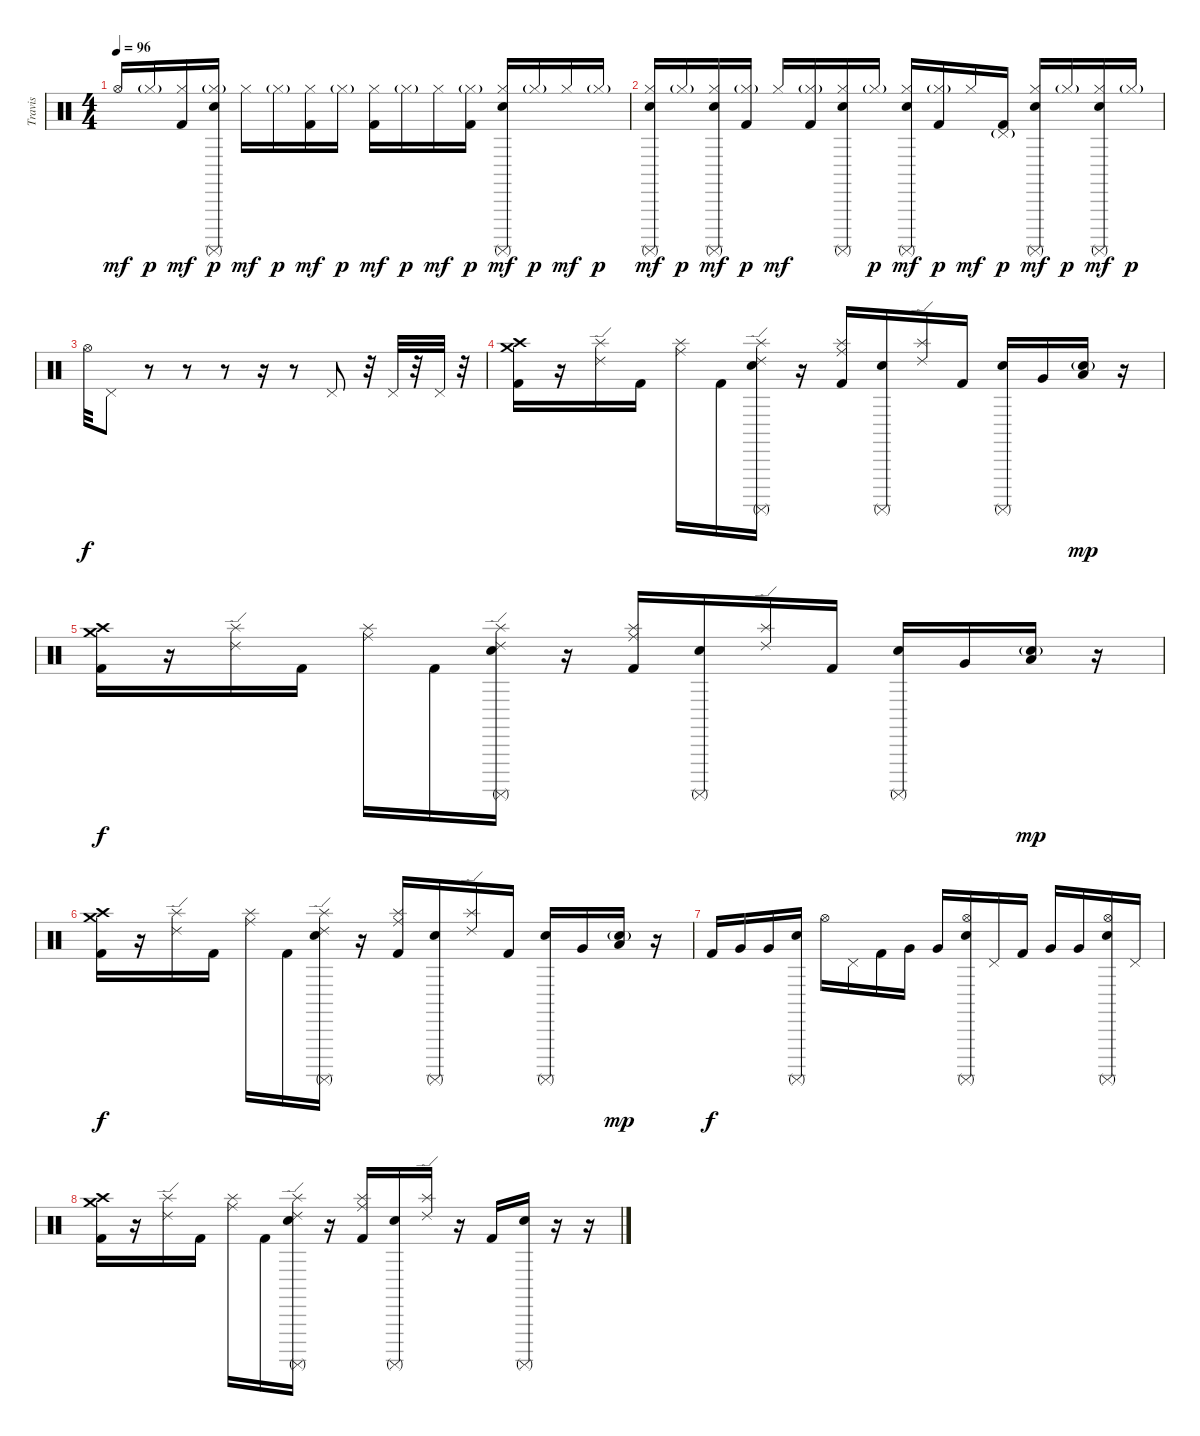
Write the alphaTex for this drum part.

\track ("Travis" "Travis") {instrument percussion bank 127}
\staff {score}
\articulation defaults
\ts (4 4)
\tempo 96
\clef neutral
\ks c "Hi-Hat (open)".16{dy mf} "Hi-Hat (closed)"{g}.16{dy p}
("Hi-Hat (closed)" "Kick (hit) 2").16{dy mf} ("Hi-Hat (closed)"{g} "Electric Snare (hit)" "Surdo (mute)").16{dy p} "Hi-Hat (closed)".16{dy mf} "Hi-Hat (closed)"{g}.16{dy p} ("Hi-Hat (closed)" "Kick (hit) 2").16{dy mf} "Hi-Hat (closed)"{g}.16{dy p} ("Hi-Hat (closed)" "Kick (hit) 2").16{dy mf} "Hi-Hat (closed)"{g}.16{dy p} "Hi-Hat (closed)".16{dy mf} ("Hi-Hat (closed)"{g} "Kick (hit) 2").16{dy p} ("Hi-Hat (closed)" "Electric Snare (hit)" "Surdo (mute)").16{dy mf} "Hi-Hat (closed)"{g}.16{dy p} "Hi-Hat (closed)".16{dy mf} "Hi-Hat (closed)"{g}.16{dy p} |
("Hi-Hat (closed)" "Electric Snare (hit)" "Surdo (mute)").16{dy mf} "Hi-Hat (closed)"{g}.16{dy p} ("Hi-Hat (closed)" "Electric Snare (hit)" "Surdo (mute)").16{dy mf} ("Hi-Hat (closed)"{g} "Kick (hit) 2").16{dy p} "Hi-Hat (closed)".16{dy mf} ("Hi-Hat (closed)"{g} "Kick (hit) 2").16 ("Hi-Hat (closed)" "Electric Snare (hit)" "Surdo (mute)").16 "Hi-Hat (closed)"{g}.16{dy p} ("Hi-Hat (closed)" "Electric Snare (hit)" "Surdo (mute)").16{dy mf} ("Hi-Hat (closed)"{g} "Kick (hit) 2").16{dy p} "Hi-Hat (closed)".16{dy mf} ("Pedal Hi-Hat (hit)"{g} "Kick (hit) 2").16{dy p} ("Hi-Hat (closed)" "Electric Snare (hit)" "Surdo (mute)").16{dy mf} "Hi-Hat (closed)"{g}.16{dy p} ("Hi-Hat (closed)" "Electric Snare (hit)" "Surdo (mute)").16{dy mf} "Hi-Hat (closed)"{g}.16{dy p} |
"Hi-Hat (open)".32{dy f} "Pedal Hi-Hat (hit)".8 r.8 r.8 r.8 r.16 r.8 "Pedal Hi-Hat (hit)".8 r.32 "Pedal Hi-Hat (hit)".32 r.32 "Pedal Hi-Hat (hit)".32 r.32 |
("Crash medium (hit)" "Crash high (hit)" "Kick (hit) 2").16 r.16 ("Ride (edge) 2" "Splash (hit)").16 "Kick (hit) 2".16 ("Ride (middle)" "Splash (hit)").16 "Kick (hit) 2".16 ("Ride (edge) 2" "Splash (hit)" "Electric Snare (hit)" "Surdo (mute)").16 r.16 ("Ride (middle)" "Splash (hit)" "Kick (hit) 2").16 ("Electric Snare (hit)" "Surdo (mute)").16 ("Ride (edge) 2" "Splash (hit)").16 "Kick (hit) 2".16 ("Electric Snare (hit)" "Surdo (mute)").16 "Very Low Tom (hit)".16 ("Low Floor Tom (hit)" "Electric Snare (hit)"{g}).16{dy mp} r.16 |
("Crash medium (hit)" "Crash high (hit)" "Kick (hit) 2").16{dy f} r.16 ("Ride (edge) 2" "Splash (hit)").16 "Kick (hit) 2".16 ("Ride (middle)" "Splash (hit)").16 "Kick (hit) 2".16 ("Ride (edge) 2" "Splash (hit)" "Electric Snare (hit)" "Surdo (mute)").16 r.16 ("Ride (middle)" "Splash (hit)" "Kick (hit) 2").16 ("Electric Snare (hit)" "Surdo (mute)").16 ("Ride (edge) 2" "Splash (hit)").16 "Kick (hit) 2".16 ("Electric Snare (hit)" "Surdo (mute)").16 "Very Low Tom (hit)".16 ("Low Floor Tom (hit)" "Electric Snare (hit)"{g}).16{dy mp} r.16 |
("Crash medium (hit)" "Crash high (hit)" "Kick (hit) 2").16{dy f} r.16 ("Ride (edge) 2" "Splash (hit)").16 "Kick (hit) 2".16 ("Ride (middle)" "Splash (hit)").16 "Kick (hit) 2".16 ("Ride (edge) 2" "Splash (hit)" "Electric Snare (hit)" "Surdo (mute)").16 r.16 ("Ride (middle)" "Splash (hit)" "Kick (hit) 2").16 ("Electric Snare (hit)" "Surdo (mute)").16 ("Ride (edge) 2" "Splash (hit)").16 "Kick (hit) 2".16 ("Electric Snare (hit)" "Surdo (mute)").16 "Very Low Tom (hit)".16 ("Low Floor Tom (hit)" "Electric Snare (hit)"{g}).16{dy mp} r.16 |
"Kick (hit) 2".16{dy f} "Very Low Tom (hit)".16 "Very Low Tom (hit)".16 ("Electric Snare (hit)" "Surdo (mute)").16 "Hi-Hat (open)".16 "Pedal Hi-Hat (hit)".16 "Kick (hit) 2".16 "Very Low Tom (hit)".16 "Very Low Tom (hit)".16 ("Hi-Hat (open)" "Electric Snare (hit)" "Surdo (mute)").16 "Pedal Hi-Hat (hit)".16 "Kick (hit) 2".16 "Very Low Tom (hit)".16 "Very Low Tom (hit)".16 ("Hi-Hat (open)" "Electric Snare (hit)" "Surdo (mute)").16 "Pedal Hi-Hat (hit)".16 |
("Crash medium (hit)" "Crash high (hit)" "Kick (hit) 2").16 r.16 ("Ride (edge) 2" "Splash (hit)").16 "Kick (hit) 2".16 ("Ride (middle)" "Splash (hit)").16 "Kick (hit) 2".16 ("Ride (edge) 2" "Splash (hit)" "Electric Snare (hit)" "Surdo (mute)").16 r.16 ("Ride (middle)" "Splash (hit)" "Kick (hit) 2").16 ("Electric Snare (hit)" "Surdo (mute)").16 ("Ride (edge) 2" "Splash (hit)").16 r.16 "Kick (hit) 2".16 ("Electric Snare (hit)" "Surdo (mute)").16 r.16 r.16
